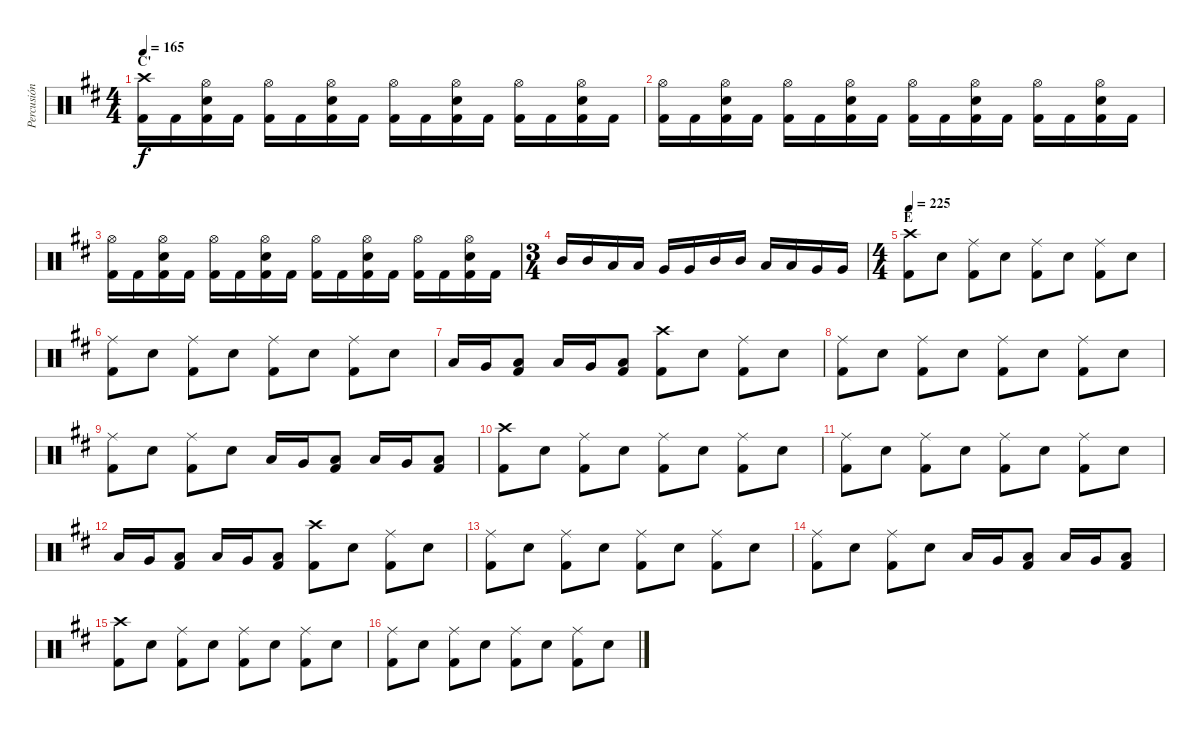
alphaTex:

\track ("Percusión" "Percusión") {instrument percussion}
\staff {score}
\articulation defaults
\ts (4 4)
\section ("" "C'")
\tempo 165
\clef neutral
\ks d
("Crash high (hit)" "Kick (hit) 2").16{dy f} "Kick (hit) 2".16 ("Hi-Hat (open)" "Electric Snare (hit)" "Kick (hit) 2").16 "Kick (hit) 2".16 ("Hi-Hat (open)" "Kick (hit) 2").16 "Kick (hit) 2".16 ("Hi-Hat (open)" "Electric Snare (hit)" "Kick (hit) 2").16 "Kick (hit) 2".16 ("Hi-Hat (open)" "Kick (hit) 2").16 "Kick (hit) 2".16 ("Hi-Hat (open)" "Electric Snare (hit)" "Kick (hit) 2").16 "Kick (hit) 2".16 ("Hi-Hat (open)" "Kick (hit) 2").16 "Kick (hit) 2".16 ("Hi-Hat (open)" "Electric Snare (hit)" "Kick (hit) 2").16 "Kick (hit) 2".16 |
("Hi-Hat (open)" "Kick (hit) 2").16 "Kick (hit) 2".16 ("Hi-Hat (open)" "Electric Snare (hit)" "Kick (hit) 2").16 "Kick (hit) 2".16 ("Hi-Hat (open)" "Kick (hit) 2").16 "Kick (hit) 2".16 ("Hi-Hat (open)" "Electric Snare (hit)" "Kick (hit) 2").16 "Kick (hit) 2".16 ("Hi-Hat (open)" "Kick (hit) 2").16 "Kick (hit) 2".16 ("Hi-Hat (open)" "Electric Snare (hit)" "Kick (hit) 2").16 "Kick (hit) 2".16 ("Hi-Hat (open)" "Kick (hit) 2").16 "Kick (hit) 2".16 ("Hi-Hat (open)" "Electric Snare (hit)" "Kick (hit) 2").16 "Kick (hit) 2".16 |
("Hi-Hat (open)" "Kick (hit) 2").16 "Kick (hit) 2".16 ("Hi-Hat (open)" "Electric Snare (hit)" "Kick (hit) 2").16 "Kick (hit) 2".16 ("Hi-Hat (open)" "Kick (hit) 2").16 "Kick (hit) 2".16 ("Hi-Hat (open)" "Electric Snare (hit)" "Kick (hit) 2").16 "Kick (hit) 2".16 ("Hi-Hat (open)" "Kick (hit) 2").16 "Kick (hit) 2".16 ("Hi-Hat (open)" "Electric Snare (hit)" "Kick (hit) 2").16 "Kick (hit) 2".16 ("Hi-Hat (open)" "Kick (hit) 2").16 "Kick (hit) 2".16 ("Hi-Hat (open)" "Electric Snare (hit)" "Kick (hit) 2").16 "Kick (hit) 2".16 |
\ts (3 4)
"Mid Tom (hit)".16 "Mid Tom (hit)".16 "Low Tom (hit)".16 "Low Tom (hit)".16 "Very Low Tom (hit)".16 "Very Low Tom (hit)".16 "Mid Tom (hit)".16 "Mid Tom (hit)".16 "Low Tom (hit)".16 "Low Tom (hit)".16 "Very Low Tom (hit)".16 "Very Low Tom (hit)".16 |
\ts (4 4)
\section ("" "E")
\tempo 225
("Crash high (hit)" "Kick (hit) 2").8 "Electric Snare (hit)".8 ("Ride (middle)" "Kick (hit) 2").8 "Electric Snare (hit)".8 ("Ride (middle)" "Kick (hit) 2").8 "Electric Snare (hit)".8 ("Ride (middle)" "Kick (hit) 2").8 "Electric Snare (hit)".8 |
("Ride (middle)" "Kick (hit) 2").8 "Electric Snare (hit)".8 ("Ride (middle)" "Kick (hit) 2").8 "Electric Snare (hit)".8 ("Ride (middle)" "Kick (hit) 2").8 "Electric Snare (hit)".8 ("Ride (middle)" "Kick (hit) 2").8 "Electric Snare (hit)".8 |
"Low Tom (hit)".16 "Very Low Tom (hit)".16 ("Low Floor Tom (hit)" "Kick (hit) 2").8 "Low Tom (hit)".16 "Very Low Tom (hit)".16 ("Low Floor Tom (hit)" "Kick (hit) 2").8 ("Crash high (hit)" "Kick (hit) 2").8 "Electric Snare (hit)".8 ("Ride (middle)" "Kick (hit) 2").8 "Electric Snare (hit)".8 |
("Ride (middle)" "Kick (hit) 2").8 "Electric Snare (hit)".8 ("Ride (middle)" "Kick (hit) 2").8 "Electric Snare (hit)".8 ("Ride (middle)" "Kick (hit) 2").8 "Electric Snare (hit)".8 ("Ride (middle)" "Kick (hit) 2").8 "Electric Snare (hit)".8 |
("Ride (middle)" "Kick (hit) 2").8 "Electric Snare (hit)".8 ("Ride (middle)" "Kick (hit) 2").8 "Electric Snare (hit)".8 "Low Tom (hit)".16 "Very Low Tom (hit)".16 ("Low Floor Tom (hit)" "Kick (hit) 2").8 "Low Tom (hit)".16 "Very Low Tom (hit)".16 ("Low Floor Tom (hit)" "Kick (hit) 2").8 |
("Crash high (hit)" "Kick (hit) 2").8 "Electric Snare (hit)".8 ("Ride (middle)" "Kick (hit) 2").8 "Electric Snare (hit)".8 ("Ride (middle)" "Kick (hit) 2").8 "Electric Snare (hit)".8 ("Ride (middle)" "Kick (hit) 2").8 "Electric Snare (hit)".8 |
("Ride (middle)" "Kick (hit) 2").8 "Electric Snare (hit)".8 ("Ride (middle)" "Kick (hit) 2").8 "Electric Snare (hit)".8 ("Ride (middle)" "Kick (hit) 2").8 "Electric Snare (hit)".8 ("Ride (middle)" "Kick (hit) 2").8 "Electric Snare (hit)".8 |
"Low Tom (hit)".16 "Very Low Tom (hit)".16 ("Low Floor Tom (hit)" "Kick (hit) 2").8 "Low Tom (hit)".16 "Very Low Tom (hit)".16 ("Low Floor Tom (hit)" "Kick (hit) 2").8 ("Crash high (hit)" "Kick (hit) 2").8 "Electric Snare (hit)".8 ("Ride (middle)" "Kick (hit) 2").8 "Electric Snare (hit)".8 |
("Ride (middle)" "Kick (hit) 2").8 "Electric Snare (hit)".8 ("Ride (middle)" "Kick (hit) 2").8 "Electric Snare (hit)".8 ("Ride (middle)" "Kick (hit) 2").8 "Electric Snare (hit)".8 ("Ride (middle)" "Kick (hit) 2").8 "Electric Snare (hit)".8 |
("Ride (middle)" "Kick (hit) 2").8 "Electric Snare (hit)".8 ("Ride (middle)" "Kick (hit) 2").8 "Electric Snare (hit)".8 "Low Tom (hit)".16 "Very Low Tom (hit)".16 ("Low Floor Tom (hit)" "Kick (hit) 2").8 "Low Tom (hit)".16 "Very Low Tom (hit)".16 ("Low Floor Tom (hit)" "Kick (hit) 2").8 |
("Crash high (hit)" "Kick (hit) 2").8 "Electric Snare (hit)".8 ("Ride (middle)" "Kick (hit) 2").8 "Electric Snare (hit)".8 ("Ride (middle)" "Kick (hit) 2").8 "Electric Snare (hit)".8 ("Ride (middle)" "Kick (hit) 2").8 "Electric Snare (hit)".8 |
("Ride (middle)" "Kick (hit) 2").8 "Electric Snare (hit)".8 ("Ride (middle)" "Kick (hit) 2").8 "Electric Snare (hit)".8 ("Ride (middle)" "Kick (hit) 2").8 "Electric Snare (hit)".8 ("Ride (middle)" "Kick (hit) 2").8 "Electric Snare (hit)".8
